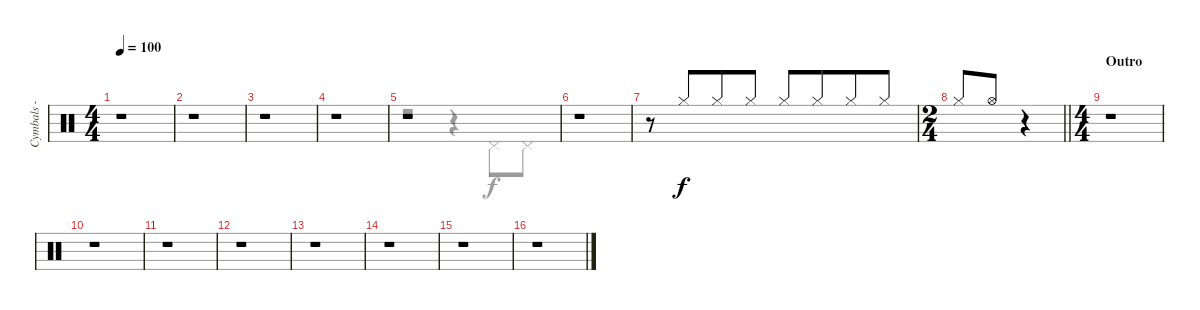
\track ("Cymbals - Hi-Hat" "Cymbals - ") {instrument percussion}
\staff {score}
\articulation defaults
\voice
\ts (4 4)
\tempo 100
\clef neutral
\ks c
r.1{dy f} |
r.1 |
r.1 |
r.1 |
r.1 |
\ks aminor
r.1 |
r.8 "Hi-Hat (closed)".8{beam Up beam merge} "Hi-Hat (closed)".8{beam Up} "Hi-Hat (closed)".8{beam Up} "Hi-Hat (closed)".8{beam Up} "Hi-Hat (closed)".8{beam Up beam merge} "Hi-Hat (closed)".8{beam Up} "Hi-Hat (closed)".8{beam Up} |
\ts (2 4)
\barLineRight lightlight "Hi-Hat (closed)".8{beam Up} "Hi-Hat (open)".8{volume 4 beam Up}
r.4 |
\ts (4 4)
\section ("" "Outro")
r.1 |
r.1 |
r.1 |
r.1 |
r.1 |
r.1 |
r.1 |
r.1
\voice
\clef neutral
\ottava regular
\simile none
\ks c
|
|
|
|
r.2 r.4 "Pedal Hi-Hat (hit)".8 "Pedal Hi-Hat (hit)".8 |
\ks aminor
|
|
\barLineRight lightlight
|
|
|
|
|
|
|
|
